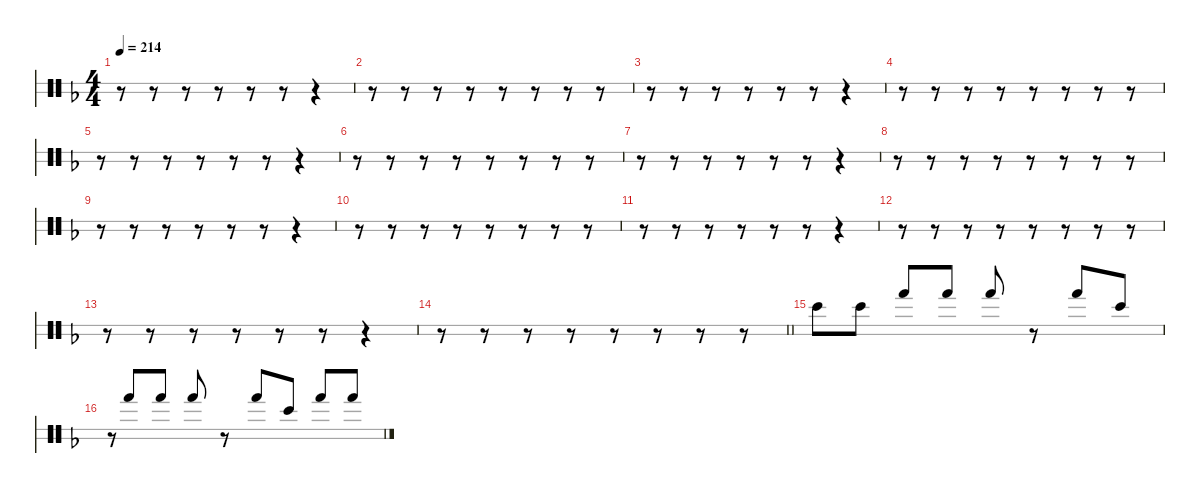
\hideDynamics
\bracketExtendMode nobrackets
\singleTrackTrackNamePolicy hidden
\multiTrackTrackNamePolicy hidden
\firstSystemTrackNameMode fullname
\firstSystemTrackNameOrientation horizontal
\otherSystemsTrackNameOrientation horizontal
\track ("Bongos" "bngKit") {instrument percussion}
\staff {score 2}
\articulation defaults
\ts (4 4)
\tempo 214
\clef neutral
\ks dminor
r.8{dy p beam Down} r.8{beam Down} r.8{beam Down} r.8{beam Down} r.8{beam Down} r.8{beam Down} r.4{beam Down} |
r.8{beam Down} r.8{beam Down} r.8{beam Down} r.8{beam Down} r.8{beam Down} r.8{beam Down} r.8{beam Down} r.8{beam Down} |
r.8{beam Down} r.8{beam Down} r.8{beam Down} r.8{beam Down} r.8{beam Down} r.8{beam Down} r.4{beam Down} |
r.8{beam Down} r.8{beam Down} r.8{beam Down} r.8{beam Down} r.8{beam Down} r.8{beam Down} r.8{beam Down} r.8{beam Down} |
r.8{beam Down} r.8{beam Down} r.8{beam Down} r.8{beam Down} r.8{beam Down} r.8{beam Down} r.4{beam Down} |
r.8{beam Down} r.8{beam Down} r.8{beam Down} r.8{beam Down} r.8{beam Down} r.8{beam Down} r.8{beam Down} r.8{beam Down} |
r.8{beam Down} r.8{beam Down} r.8{beam Down} r.8{beam Down} r.8{beam Down} r.8{beam Down} r.4{beam Down} |
r.8{beam Down} r.8{beam Down} r.8{beam Down} r.8{beam Down} r.8{beam Down} r.8{beam Down} r.8{beam Down} r.8{beam Down} |
r.8{beam Down} r.8{beam Down} r.8{beam Down} r.8{beam Down} r.8{beam Down} r.8{beam Down} r.4{beam Down} |
r.8{beam Down} r.8{beam Down} r.8{beam Down} r.8{beam Down} r.8{beam Down} r.8{beam Down} r.8{beam Down} r.8{beam Down} |
r.8{beam Down} r.8{beam Down} r.8{beam Down} r.8{beam Down} r.8{beam Down} r.8{beam Down} r.4{beam Down} |
r.8{beam Down} r.8{beam Down} r.8{beam Down} r.8{beam Down} r.8{beam Down} r.8{beam Down} r.8{beam Down} r.8{beam Down} |
r.8{beam Down} r.8{beam Down} r.8{beam Down} r.8{beam Down} r.8{beam Down} r.8{beam Down} r.4{beam Down} |
\barLineRight lightlight
r.8{beam Down} r.8{beam Down} r.8{beam Down} r.8{beam Down} r.8{beam Down} r.8{beam Down} r.8{beam Down} r.8{beam Down} |
"Bongo High (hit)"{acc forcenatural}.8{dy mp beam Down} "Bongo High (hit)"{acc forcenatural}.8{beam Down} "Hand (hit)"{acc forcenatural}.8{dy p beam Up} "Hand (hit)"{acc forcenatural}.8{beam Up} "Hand (hit)"{acc forcenatural}.8{dy mp beam Up} r.8{beam Up} "Hand (hit)"{acc forcenatural}.8{beam Up} "Bongo High (hit)"{acc forcenatural}.8{beam Up} |
r.8{gr beam Up} "Hand (hit)"{acc forcenatural}.8{dy p beam Up} "Hand (hit)"{acc forcenatural}.8{beam Up} "Hand (hit)"{acc forcenatural}.8{dy mp beam Up} r.8{beam Up} "Hand (hit)"{acc forcenatural}.8{beam Up} "Bongo High (hit)"{acc forcenatural}.8{beam Up} "Hand (hit)"{acc forcenatural}.8{dy p beam Up} "Hand (hit)"{acc forcenatural}.8{beam Up}
